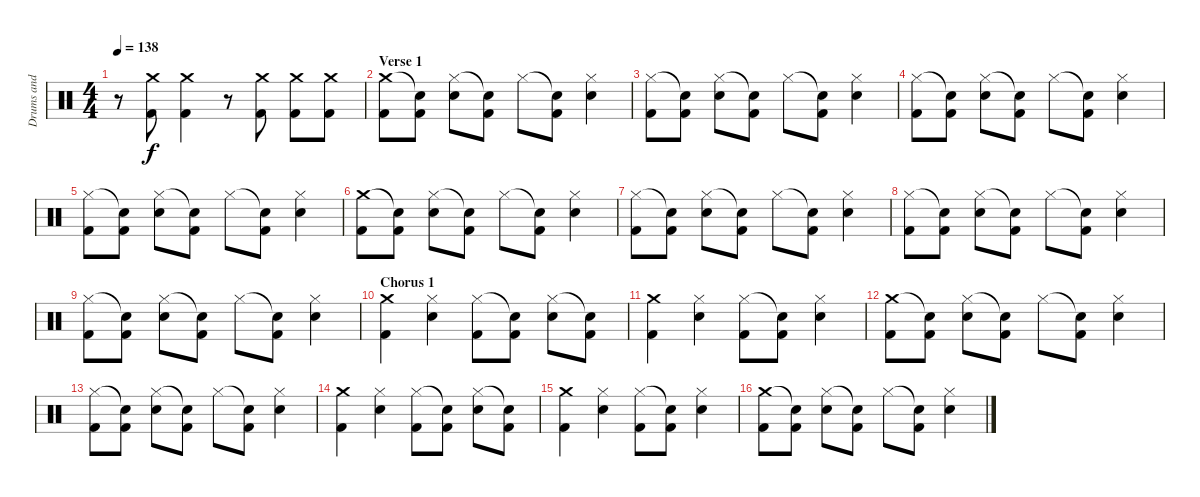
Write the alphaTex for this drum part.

\track ("Drums and Percussion" "Drums and ") {instrument percussion}
\staff {score}
\articulation defaults
\ts (4 4)
\tempo 138
\clef neutral
\ks c
r.8{dy f} ("Crash medium (hit)" "Kick (hit) 2").8 ("Crash medium (hit)" "Kick (hit) 2").4 r.8 ("Crash medium (hit)" "Kick (hit) 2").8 ("Crash medium (hit)" "Kick (hit) 2").8 ("Crash medium (hit)" "Kick (hit) 2").8 |
\section ("" "Verse 1")
("Crash medium (hit)" "Kick (hit) 2").8 ("Snare (hit)"{t} "Kick (hit) 2").8 ("Hi-Hat (closed)" "Electric Snare (hit)").8 ("Snare (hit)"{t} "Kick (hit) 2").8 "Hi-Hat (closed)".8 ("Snare (hit)"{t} "Kick (hit) 2").8 ("Hi-Hat (closed)" "Electric Snare (hit)").4 |
("Hi-Hat (closed)" "Kick (hit) 2").8 ("Snare (hit)"{t} "Kick (hit) 2").8 ("Hi-Hat (closed)" "Electric Snare (hit)").8 ("Snare (hit)"{t} "Kick (hit) 2").8 "Hi-Hat (closed)".8 ("Snare (hit)"{t} "Kick (hit) 2").8 ("Hi-Hat (closed)" "Electric Snare (hit)").4 |
("Hi-Hat (closed)" "Kick (hit) 2").8 ("Snare (hit)"{t} "Kick (hit) 2").8 ("Hi-Hat (closed)" "Electric Snare (hit)").8 ("Snare (hit)"{t} "Kick (hit) 2").8 "Hi-Hat (closed)".8 ("Snare (hit)"{t} "Kick (hit) 2").8 ("Hi-Hat (closed)" "Electric Snare (hit)").4 |
("Hi-Hat (closed)" "Kick (hit) 2").8 ("Snare (hit)"{t} "Kick (hit) 2").8 ("Hi-Hat (closed)" "Electric Snare (hit)").8 ("Snare (hit)"{t} "Kick (hit) 2").8 "Hi-Hat (closed)".8 ("Snare (hit)"{t} "Kick (hit) 2").8 ("Hi-Hat (closed)" "Electric Snare (hit)").4 |
("Crash medium (hit)" "Kick (hit) 2").8 ("Snare (hit)"{t} "Kick (hit) 2").8 ("Hi-Hat (closed)" "Electric Snare (hit)").8 ("Snare (hit)"{t} "Kick (hit) 2").8 "Hi-Hat (closed)".8 ("Snare (hit)"{t} "Kick (hit) 2").8 ("Hi-Hat (closed)" "Electric Snare (hit)").4 |
("Hi-Hat (closed)" "Kick (hit) 2").8 ("Snare (hit)"{t} "Kick (hit) 2").8 ("Hi-Hat (closed)" "Electric Snare (hit)").8 ("Snare (hit)"{t} "Kick (hit) 2").8 "Hi-Hat (closed)".8 ("Snare (hit)"{t} "Kick (hit) 2").8 ("Hi-Hat (closed)" "Electric Snare (hit)").4 |
("Hi-Hat (closed)" "Kick (hit) 2").8 ("Snare (hit)"{t} "Kick (hit) 2").8 ("Hi-Hat (closed)" "Electric Snare (hit)").8 ("Snare (hit)"{t} "Kick (hit) 2").8 "Hi-Hat (closed)".8 ("Snare (hit)"{t} "Kick (hit) 2").8 ("Hi-Hat (closed)" "Electric Snare (hit)").4 |
("Hi-Hat (closed)" "Kick (hit) 2").8 ("Snare (hit)"{t} "Kick (hit) 2").8 ("Hi-Hat (closed)" "Electric Snare (hit)").8 ("Snare (hit)"{t} "Kick (hit) 2").8 "Hi-Hat (closed)".8 ("Snare (hit)"{t} "Kick (hit) 2").8 ("Hi-Hat (closed)" "Electric Snare (hit)").4 |
\section ("" "Chorus 1")
("Crash medium (hit)" "Kick (hit) 2").4 ("Hi-Hat (closed)" "Electric Snare (hit)").4 ("Hi-Hat (closed)" "Kick (hit) 2").8 ("Snare (hit)"{t} "Kick (hit) 2").8 ("Hi-Hat (closed)" "Electric Snare (hit)").8 ("Snare (hit)"{t} "Kick (hit) 2").8 |
("Crash medium (hit)" "Kick (hit) 2").4 ("Hi-Hat (closed)" "Electric Snare (hit)").4 ("Hi-Hat (closed)" "Kick (hit) 2").8 ("Snare (hit)"{t} "Kick (hit) 2").8 ("Hi-Hat (closed)" "Electric Snare (hit)").4 |
("Crash medium (hit)" "Kick (hit) 2").8 ("Snare (hit)"{t} "Kick (hit) 2").8 ("Hi-Hat (closed)" "Electric Snare (hit)").8 ("Snare (hit)"{t} "Kick (hit) 2").8 "Hi-Hat (closed)".8 ("Snare (hit)"{t} "Kick (hit) 2").8 ("Hi-Hat (closed)" "Electric Snare (hit)").4 |
("Hi-Hat (closed)" "Kick (hit) 2").8 ("Snare (hit)"{t} "Kick (hit) 2").8 ("Hi-Hat (closed)" "Electric Snare (hit)").8 ("Snare (hit)"{t} "Kick (hit) 2").8 "Hi-Hat (closed)".8 ("Snare (hit)"{t} "Kick (hit) 2").8 ("Hi-Hat (closed)" "Electric Snare (hit)").4 |
("Crash medium (hit)" "Kick (hit) 2").4 ("Hi-Hat (closed)" "Electric Snare (hit)").4 ("Hi-Hat (closed)" "Kick (hit) 2").8 ("Snare (hit)"{t} "Kick (hit) 2").8 ("Hi-Hat (closed)" "Electric Snare (hit)").8 ("Snare (hit)"{t} "Kick (hit) 2").8 |
("Crash medium (hit)" "Kick (hit) 2").4 ("Hi-Hat (closed)" "Electric Snare (hit)").4 ("Hi-Hat (closed)" "Kick (hit) 2").8 ("Snare (hit)"{t} "Kick (hit) 2").8 ("Hi-Hat (closed)" "Electric Snare (hit)").4 |
("Crash medium (hit)" "Kick (hit) 2").8 ("Snare (hit)"{t} "Kick (hit) 2").8 ("Hi-Hat (closed)" "Electric Snare (hit)").8 ("Snare (hit)"{t} "Kick (hit) 2").8 "Hi-Hat (closed)".8 ("Snare (hit)"{t} "Kick (hit) 2").8 ("Hi-Hat (closed)" "Electric Snare (hit)").4
